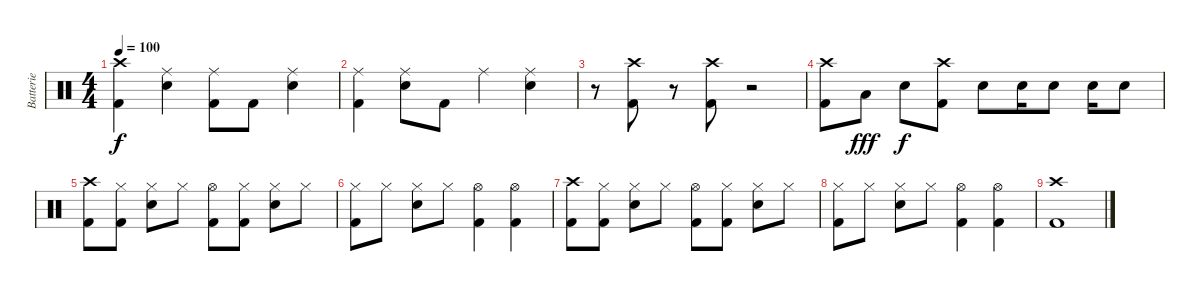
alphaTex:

\track ("Batterie" "Batterie") {instrument percussion}
\staff {score}
\articulation defaults
\ts (4 4)
\tempo 100
\clef neutral
\ks c
("Crash high (hit)" "Kick (hit) 2").4{dy f} ("Ride (middle)" "Electric Snare (hit)").4 ("Ride (middle)" "Kick (hit) 2").8 "Kick (hit) 2".8 ("Ride (middle)" "Electric Snare (hit)").4 |
("Ride (middle)" "Kick (hit) 2").4 ("Ride (middle)" "Electric Snare (hit)").8 "Kick (hit) 2".8 "Ride (middle)".4 ("Ride (middle)" "Electric Snare (hit)").4 |
r.8 ("Crash high (hit)" "Kick (hit) 2").8 r.8 ("Crash high (hit)" "Kick (hit) 2").8 r.2 |
("Crash high (hit)" "Kick (hit) 2").8 "Low Tom (hit)".8{dy fff} "Electric Snare (hit)".8{dy f} ("Crash high (hit)" "Kick (hit) 2").8 "Electric Snare (hit)".8 "Electric Snare (hit)".16 "Electric Snare (hit)".8 "Electric Snare (hit)".16 "Electric Snare (hit)".8 |
("Crash high (hit)" "Kick (hit) 2").8 ("Hi-Hat (closed)" "Kick (hit) 2").8 ("Hi-Hat (closed)" "Electric Snare (hit)").8 "Hi-Hat (closed)".8 ("Hi-Hat (open)" "Kick (hit) 2").8 ("Hi-Hat (closed)" "Kick (hit) 2").8 ("Hi-Hat (closed)" "Electric Snare (hit)").8 "Hi-Hat (closed)".8 |
("Hi-Hat (closed)" "Kick (hit) 2").8 "Hi-Hat (closed)".8 ("Hi-Hat (closed)" "Electric Snare (hit)").8 "Hi-Hat (closed)".8 ("Hi-Hat (open)" "Kick (hit) 2").4 ("Hi-Hat (open)" "Kick (hit) 2").4 |
("Crash high (hit)" "Kick (hit) 2").8 ("Hi-Hat (closed)" "Kick (hit) 2").8 ("Hi-Hat (closed)" "Electric Snare (hit)").8 "Hi-Hat (closed)".8 ("Hi-Hat (open)" "Kick (hit) 2").8 ("Hi-Hat (closed)" "Kick (hit) 2").8 ("Hi-Hat (closed)" "Electric Snare (hit)").8 "Hi-Hat (closed)".8 |
("Hi-Hat (closed)" "Kick (hit) 2").8{volume 0} "Hi-Hat (closed)".8 ("Hi-Hat (closed)" "Electric Snare (hit)").8 "Hi-Hat (closed)".8 ("Hi-Hat (open)" "Kick (hit) 2").4 ("Hi-Hat (open)" "Kick (hit) 2").4 |
("Crash high (hit)" "Kick (hit) 2").1
